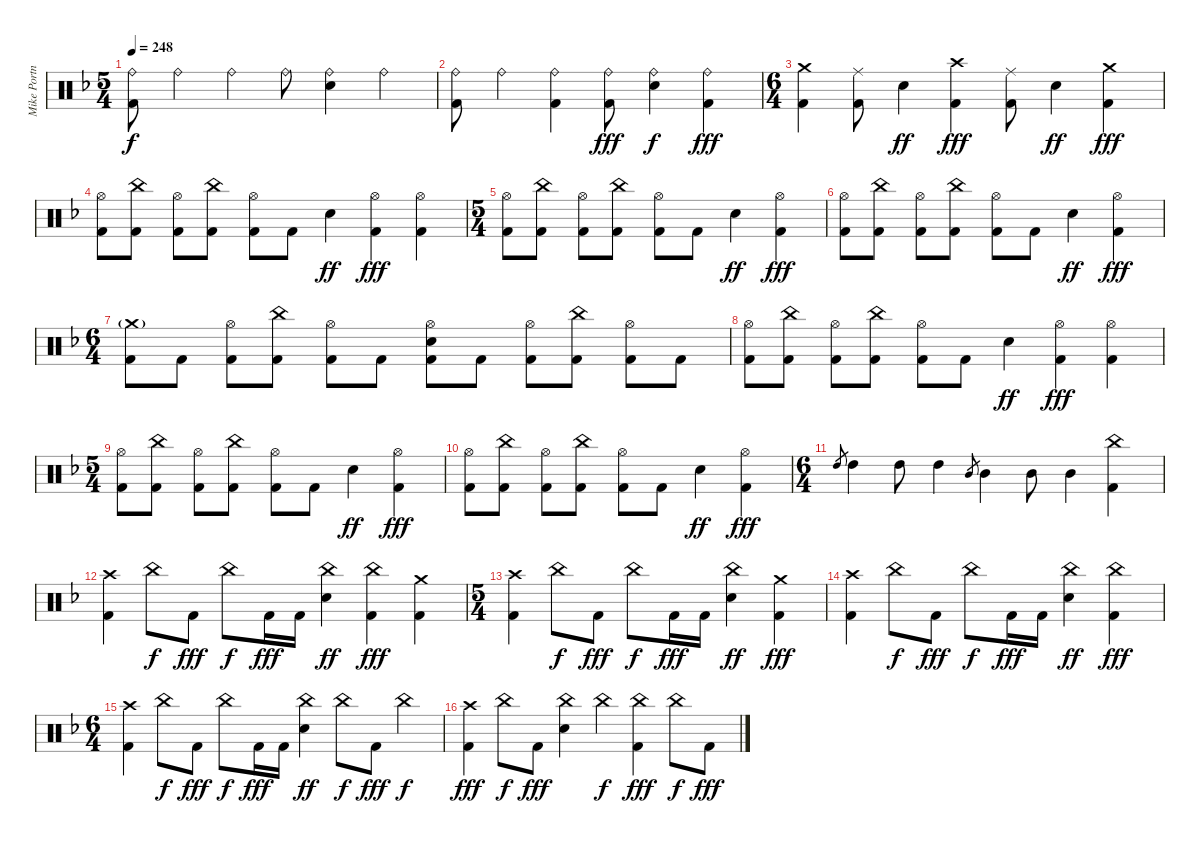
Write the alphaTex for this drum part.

\track ("Mike Portnoy Drums" "Mike Portn") {instrument percussion}
\staff {score}
\articulation defaults
\ts (5 4)
\tempo 248
\clef neutral
\ks dminor
("Ride (bell)" "Kick (hit) 2").8{dy f} "Ride (bell)".4 "Ride (bell)".4 "Ride (bell)".8 ("Ride (bell)" "Electric Snare (hit)").4 "Ride (bell)".4 |
("Ride (bell)" "Kick (hit) 2").8 "Ride (bell)".4 ("Ride (bell)" "Kick (hit) 2").4 ("Ride (bell)" "Kick (hit) 2").8{dy fff} ("Ride (bell)" "Electric Snare (hit)").4{dy f} ("Ride (bell)" "Kick (hit) 2").4{dy fff} |
\ts (6 4)
("Crash medium (hit)" "Kick (hit) 2").4 ("Ride (middle)" "Kick (hit) 2").8 "Electric Snare (hit)".4{dy ff} ("Crash high (hit)" "Kick (hit) 2").4{dy fff} ("Ride (middle)" "Kick (hit) 2").8 "Electric Snare (hit)".4{dy ff} ("Crash medium (hit)" "Kick (hit) 2").4{dy fff} |
("Hi-Hat (open)" "Kick (hit) 2").8 ("China (hit)" "Kick (hit) 2").8 ("Hi-Hat (open)" "Kick (hit) 2").8 ("China (hit)" "Kick (hit) 2").8 ("Hi-Hat (open)" "Kick (hit) 2").8 "Kick (hit) 2".8 "Electric Snare (hit)".4{dy ff} ("Hi-Hat (open)" "Kick (hit) 2").4{dy fff} ("Hi-Hat (open)" "Kick (hit) 2").4 |
\ts (5 4)
("Hi-Hat (open)" "Kick (hit) 2").8 ("China (hit)" "Kick (hit) 2").8 ("Hi-Hat (open)" "Kick (hit) 2").8 ("China (hit)" "Kick (hit) 2").8 ("Hi-Hat (open)" "Kick (hit) 2").8 "Kick (hit) 2".8 "Electric Snare (hit)".4{dy ff} ("Hi-Hat (open)" "Kick (hit) 2").4{dy fff} |
("Hi-Hat (open)" "Kick (hit) 2").8 ("China (hit)" "Kick (hit) 2").8 ("Hi-Hat (open)" "Kick (hit) 2").8 ("China (hit)" "Kick (hit) 2").8 ("Hi-Hat (open)" "Kick (hit) 2").8 "Kick (hit) 2".8 "Electric Snare (hit)".4{dy ff} ("Hi-Hat (open)" "Kick (hit) 2").4{dy fff} |
\ts (6 4)
("Crash medium (hit)"{g} "Kick (hit) 2").8 "Kick (hit) 2".8 ("Hi-Hat (open)" "Kick (hit) 2").8 ("China (hit)" "Kick (hit) 2").8 ("Hi-Hat (open)" "Kick (hit) 2").8 "Kick (hit) 2".8 ("Hi-Hat (open)" "Electric Snare (hit)" "Kick (hit) 2").8 "Kick (hit) 2".8 ("Hi-Hat (open)" "Kick (hit) 2").8 ("China (hit)" "Kick (hit) 2").8 ("Hi-Hat (open)" "Kick (hit) 2").8 "Kick (hit) 2".8 |
("Hi-Hat (open)" "Kick (hit) 2").8 ("China (hit)" "Kick (hit) 2").8 ("Hi-Hat (open)" "Kick (hit) 2").8 ("China (hit)" "Kick (hit) 2").8 ("Hi-Hat (open)" "Kick (hit) 2").8 "Kick (hit) 2".8 "Electric Snare (hit)".4{dy ff} ("Hi-Hat (open)" "Kick (hit) 2").4{dy fff} ("Hi-Hat (open)" "Kick (hit) 2").4 |
\ts (5 4)
("Hi-Hat (open)" "Kick (hit) 2").8 ("China (hit)" "Kick (hit) 2").8 ("Hi-Hat (open)" "Kick (hit) 2").8 ("China (hit)" "Kick (hit) 2").8 ("Hi-Hat (open)" "Kick (hit) 2").8 "Kick (hit) 2".8 "Electric Snare (hit)".4{dy ff} ("Hi-Hat (open)" "Kick (hit) 2").4{dy fff} |
("Hi-Hat (open)" "Kick (hit) 2").8 ("China (hit)" "Kick (hit) 2").8 ("Hi-Hat (open)" "Kick (hit) 2").8 ("China (hit)" "Kick (hit) 2").8 ("Hi-Hat (open)" "Kick (hit) 2").8 "Kick (hit) 2".8 "Electric Snare (hit)".4{dy ff} ("Hi-Hat (open)" "Kick (hit) 2").4{dy fff} |
\ts (6 4)
"High Tom (hit)".8{gr} "High Tom (hit)".4 "High Tom (hit)".8 "High Tom (hit)".4 "Mid Tom (hit)".8{gr} "Mid Tom (hit)".4 "Mid Tom (hit)".8 "Mid Tom (hit)".4 ("China (hit)" "Kick (hit) 2").4 |
("Crash high (hit)" "Kick (hit) 2").4 "China (hit)".8{dy f} "Kick (hit) 2".8{dy fff} "China (hit)".8{dy f} "Kick (hit) 2".16{dy fff} "Kick (hit) 2".16 ("China (hit)" "Electric Snare (hit)").4{dy ff} ("China (hit)" "Kick (hit) 2").4{dy fff} ("Crash medium (hit)" "Kick (hit) 2").4 |
\ts (5 4)
("Crash high (hit)" "Kick (hit) 2").4 "China (hit)".8{dy f} "Kick (hit) 2".8{dy fff} "China (hit)".8{dy f} "Kick (hit) 2".16{dy fff} "Kick (hit) 2".16 ("China (hit)" "Electric Snare (hit)").4{dy ff} ("Crash medium (hit)" "Kick (hit) 2").4{dy fff} |
("Crash high (hit)" "Kick (hit) 2").4 "China (hit)".8{dy f} "Kick (hit) 2".8{dy fff} "China (hit)".8{dy f} "Kick (hit) 2".16{dy fff} "Kick (hit) 2".16 ("China (hit)" "Electric Snare (hit)").4{dy ff} ("China (hit)" "Kick (hit) 2").4{dy fff} |
\ts (6 4)
("Crash high (hit)" "Kick (hit) 2").4 "China (hit)".8{dy f} "Kick (hit) 2".8{dy fff} "China (hit)".8{dy f} "Kick (hit) 2".16{dy fff} "Kick (hit) 2".16 ("China (hit)" "Electric Snare (hit)").4{dy ff} "China (hit)".8{dy f} "Kick (hit) 2".8{dy fff} "China (hit)".4{dy f} |
("Crash high (hit)" "Kick (hit) 2").4{dy fff} "China (hit)".8{dy f} "Kick (hit) 2".8{dy fff} ("China (hit)" "Electric Snare (hit)").4 "China (hit)".4{dy f} ("China (hit)" "Kick (hit) 2").4{dy fff} "China (hit)".8{dy f} "Kick (hit) 2".8{dy fff}
